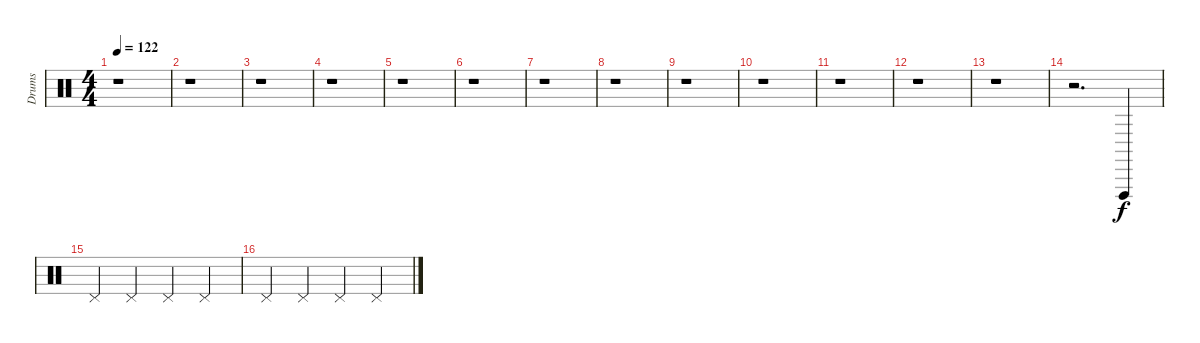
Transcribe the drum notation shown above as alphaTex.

\track ("Drums" "Drums") {instrument percussion}
\staff {score}
\articulation defaults
\ts (4 4)
\tempo 122
\clef neutral
\ks c
r.1{dy f} |
r.1 |
r.1 |
r.1 |
r.1 |
r.1 |
r.1 |
r.1 |
r.1 |
r.1 |
r.1 |
r.1 |
r.1 |
r.2{d} "Vibraslap (hit)".4 |
"Pedal Hi-Hat (hit)".4 "Pedal Hi-Hat (hit)".4 "Pedal Hi-Hat (hit)".4 "Pedal Hi-Hat (hit)".4 |
"Pedal Hi-Hat (hit)".4 "Pedal Hi-Hat (hit)".4 "Pedal Hi-Hat (hit)".4 "Pedal Hi-Hat (hit)".4
